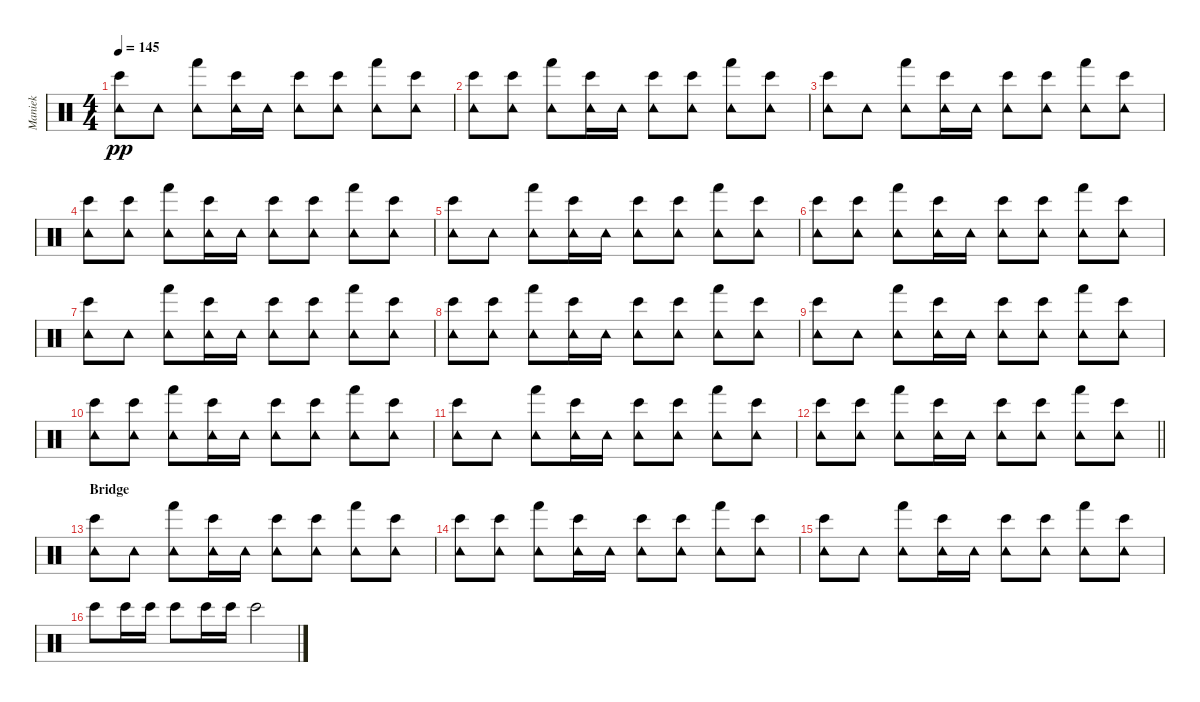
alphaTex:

\track ("Maniek" "Maniek") {instrument percussion}
\staff {score}
\articulation defaults
\ts (4 4)
\tempo 145
\clef neutral
\ks c
("Bongo High (hit)" "Tambourine (hit)").8{dy pp} "Tambourine (hit)".8 ("Hand (hit)" "Tambourine (hit)").8 ("Bongo High (hit)" "Tambourine (hit)").16 "Tambourine (hit)".16 ("Bongo High (hit)" "Tambourine (hit)").8 ("Bongo High (hit)" "Tambourine (hit)").8 ("Hand (hit)" "Tambourine (hit)").8 ("Bongo High (hit)" "Tambourine (hit)").8 |
("Bongo High (hit)" "Tambourine (hit)").8 ("Bongo High (hit)" "Tambourine (hit)").8 ("Hand (hit)" "Tambourine (hit)").8 ("Bongo High (hit)" "Tambourine (hit)").16 "Tambourine (hit)".16 ("Bongo High (hit)" "Tambourine (hit)").8 ("Bongo High (hit)" "Tambourine (hit)").8 ("Hand (hit)" "Tambourine (hit)").8 ("Bongo High (hit)" "Tambourine (hit)").8 |
("Bongo High (hit)" "Tambourine (hit)").8 "Tambourine (hit)".8 ("Hand (hit)" "Tambourine (hit)").8 ("Bongo High (hit)" "Tambourine (hit)").16 "Tambourine (hit)".16 ("Bongo High (hit)" "Tambourine (hit)").8 ("Bongo High (hit)" "Tambourine (hit)").8 ("Hand (hit)" "Tambourine (hit)").8 ("Bongo High (hit)" "Tambourine (hit)").8 |
("Bongo High (hit)" "Tambourine (hit)").8 ("Bongo High (hit)" "Tambourine (hit)").8 ("Hand (hit)" "Tambourine (hit)").8 ("Bongo High (hit)" "Tambourine (hit)").16 "Tambourine (hit)".16 ("Bongo High (hit)" "Tambourine (hit)").8 ("Bongo High (hit)" "Tambourine (hit)").8 ("Hand (hit)" "Tambourine (hit)").8 ("Bongo High (hit)" "Tambourine (hit)").8 |
("Bongo High (hit)" "Tambourine (hit)").8 "Tambourine (hit)".8 ("Hand (hit)" "Tambourine (hit)").8 ("Bongo High (hit)" "Tambourine (hit)").16 "Tambourine (hit)".16 ("Bongo High (hit)" "Tambourine (hit)").8 ("Bongo High (hit)" "Tambourine (hit)").8 ("Hand (hit)" "Tambourine (hit)").8 ("Bongo High (hit)" "Tambourine (hit)").8 |
("Bongo High (hit)" "Tambourine (hit)").8 ("Bongo High (hit)" "Tambourine (hit)").8 ("Hand (hit)" "Tambourine (hit)").8 ("Bongo High (hit)" "Tambourine (hit)").16 "Tambourine (hit)".16 ("Bongo High (hit)" "Tambourine (hit)").8 ("Bongo High (hit)" "Tambourine (hit)").8 ("Hand (hit)" "Tambourine (hit)").8 ("Bongo High (hit)" "Tambourine (hit)").8 |
("Bongo High (hit)" "Tambourine (hit)").8 "Tambourine (hit)".8 ("Hand (hit)" "Tambourine (hit)").8 ("Bongo High (hit)" "Tambourine (hit)").16 "Tambourine (hit)".16 ("Bongo High (hit)" "Tambourine (hit)").8 ("Bongo High (hit)" "Tambourine (hit)").8 ("Hand (hit)" "Tambourine (hit)").8 ("Bongo High (hit)" "Tambourine (hit)").8 |
("Bongo High (hit)" "Tambourine (hit)").8 ("Bongo High (hit)" "Tambourine (hit)").8 ("Hand (hit)" "Tambourine (hit)").8 ("Bongo High (hit)" "Tambourine (hit)").16 "Tambourine (hit)".16 ("Bongo High (hit)" "Tambourine (hit)").8 ("Bongo High (hit)" "Tambourine (hit)").8 ("Hand (hit)" "Tambourine (hit)").8 ("Bongo High (hit)" "Tambourine (hit)").8 |
("Bongo High (hit)" "Tambourine (hit)").8 "Tambourine (hit)".8 ("Hand (hit)" "Tambourine (hit)").8 ("Bongo High (hit)" "Tambourine (hit)").16 "Tambourine (hit)".16 ("Bongo High (hit)" "Tambourine (hit)").8 ("Bongo High (hit)" "Tambourine (hit)").8 ("Hand (hit)" "Tambourine (hit)").8 ("Bongo High (hit)" "Tambourine (hit)").8 |
("Bongo High (hit)" "Tambourine (hit)").8 ("Bongo High (hit)" "Tambourine (hit)").8 ("Hand (hit)" "Tambourine (hit)").8 ("Bongo High (hit)" "Tambourine (hit)").16 "Tambourine (hit)".16 ("Bongo High (hit)" "Tambourine (hit)").8 ("Bongo High (hit)" "Tambourine (hit)").8 ("Hand (hit)" "Tambourine (hit)").8 ("Bongo High (hit)" "Tambourine (hit)").8 |
("Bongo High (hit)" "Tambourine (hit)").8 "Tambourine (hit)".8 ("Hand (hit)" "Tambourine (hit)").8 ("Bongo High (hit)" "Tambourine (hit)").16 "Tambourine (hit)".16 ("Bongo High (hit)" "Tambourine (hit)").8 ("Bongo High (hit)" "Tambourine (hit)").8 ("Hand (hit)" "Tambourine (hit)").8 ("Bongo High (hit)" "Tambourine (hit)").8 |
\barLineRight lightlight
("Bongo High (hit)" "Tambourine (hit)").8 ("Bongo High (hit)" "Tambourine (hit)").8 ("Hand (hit)" "Tambourine (hit)").8 ("Bongo High (hit)" "Tambourine (hit)").16 "Tambourine (hit)".16 ("Bongo High (hit)" "Tambourine (hit)").8 ("Bongo High (hit)" "Tambourine (hit)").8 ("Hand (hit)" "Tambourine (hit)").8 ("Bongo High (hit)" "Tambourine (hit)").8 |
\section ("" "Bridge")
("Bongo High (hit)" "Tambourine (hit)").8 "Tambourine (hit)".8 ("Hand (hit)" "Tambourine (hit)").8 ("Bongo High (hit)" "Tambourine (hit)").16 "Tambourine (hit)".16 ("Bongo High (hit)" "Tambourine (hit)").8 ("Bongo High (hit)" "Tambourine (hit)").8 ("Hand (hit)" "Tambourine (hit)").8 ("Bongo High (hit)" "Tambourine (hit)").8 |
("Bongo High (hit)" "Tambourine (hit)").8 ("Bongo High (hit)" "Tambourine (hit)").8 ("Hand (hit)" "Tambourine (hit)").8 ("Bongo High (hit)" "Tambourine (hit)").16 "Tambourine (hit)".16 ("Bongo High (hit)" "Tambourine (hit)").8 ("Bongo High (hit)" "Tambourine (hit)").8 ("Hand (hit)" "Tambourine (hit)").8 ("Bongo High (hit)" "Tambourine (hit)").8 |
("Bongo High (hit)" "Tambourine (hit)").8 "Tambourine (hit)".8 ("Hand (hit)" "Tambourine (hit)").8 ("Bongo High (hit)" "Tambourine (hit)").16 "Tambourine (hit)".16 ("Bongo High (hit)" "Tambourine (hit)").8 ("Bongo High (hit)" "Tambourine (hit)").8 ("Hand (hit)" "Tambourine (hit)").8 ("Bongo High (hit)" "Tambourine (hit)").8 |
"Bongo High (hit)".8 "Bongo High (hit)".16 "Bongo High (hit)".16 "Bongo High (hit)".8 "Bongo High (hit)".16 "Bongo High (hit)".16 "Bongo High (hit)".2
